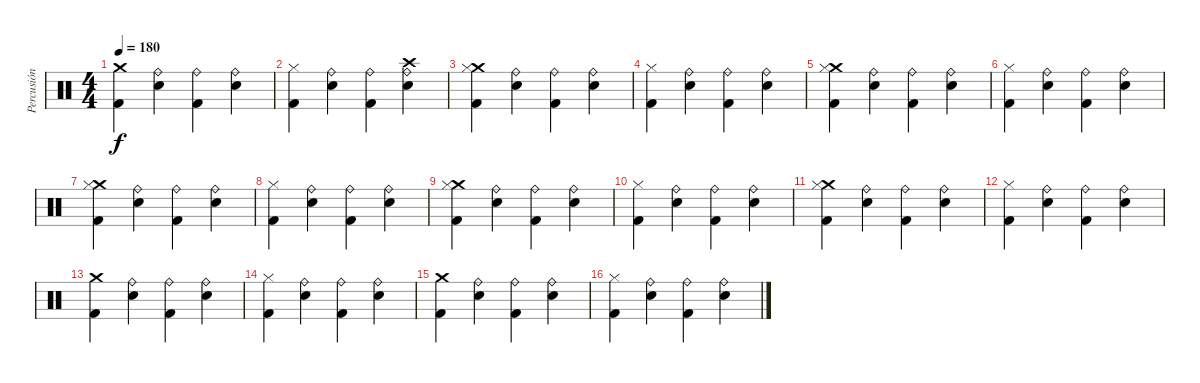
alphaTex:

\track ("Percusión" "Percusión") {instrument percussion}
\staff {score}
\articulation defaults
\ts (4 4)
\tempo 180
\clef neutral
\ks c
("Crash medium (hit)" "Kick (hit) 2").4{dy f} ("Ride (bell)" "Electric Snare (hit)").4 ("Ride (bell)" "Kick (hit) 2").4 ("Ride (bell)" "Electric Snare (hit)").4 |
("Hi-Hat (closed)" "Kick (hit) 2").4 ("Ride (bell)" "Electric Snare (hit)").4 ("Ride (bell)" "Kick (hit) 2").4 ("Crash high (hit)" "Ride (bell)" "Electric Snare (hit)").4 |
("Crash medium (hit)" "Hi-Hat (closed)" "Kick (hit) 2").4 ("Ride (bell)" "Electric Snare (hit)").4 ("Ride (bell)" "Kick (hit) 2").4 ("Ride (bell)" "Electric Snare (hit)").4 |
("Hi-Hat (closed)" "Kick (hit) 2").4 ("Ride (bell)" "Electric Snare (hit)").4 ("Ride (bell)" "Kick (hit) 2").4 ("Ride (bell)" "Electric Snare (hit)").4 |
("Crash medium (hit)" "Hi-Hat (closed)" "Kick (hit) 2").4 ("Ride (bell)" "Electric Snare (hit)").4 ("Ride (bell)" "Kick (hit) 2").4 ("Ride (bell)" "Electric Snare (hit)").4 |
("Hi-Hat (closed)" "Kick (hit) 2").4 ("Ride (bell)" "Electric Snare (hit)").4 ("Ride (bell)" "Kick (hit) 2").4 ("Ride (bell)" "Electric Snare (hit)").4 |
("Crash medium (hit)" "Hi-Hat (closed)" "Kick (hit) 2").4 ("Ride (bell)" "Electric Snare (hit)").4 ("Ride (bell)" "Kick (hit) 2").4 ("Ride (bell)" "Electric Snare (hit)").4 |
("Hi-Hat (closed)" "Kick (hit) 2").4 ("Ride (bell)" "Electric Snare (hit)").4 ("Ride (bell)" "Kick (hit) 2").4 ("Ride (bell)" "Electric Snare (hit)").4 |
("Crash medium (hit)" "Hi-Hat (closed)" "Kick (hit) 2").4 ("Ride (bell)" "Electric Snare (hit)").4 ("Ride (bell)" "Kick (hit) 2").4 ("Ride (bell)" "Electric Snare (hit)").4 |
("Hi-Hat (closed)" "Kick (hit) 2").4 ("Ride (bell)" "Electric Snare (hit)").4 ("Ride (bell)" "Kick (hit) 2").4 ("Ride (bell)" "Electric Snare (hit)").4 |
("Crash medium (hit)" "Hi-Hat (closed)" "Kick (hit) 2").4 ("Ride (bell)" "Electric Snare (hit)").4 ("Ride (bell)" "Kick (hit) 2").4 ("Ride (bell)" "Electric Snare (hit)").4 |
("Hi-Hat (closed)" "Kick (hit) 2").4 ("Ride (bell)" "Electric Snare (hit)").4 ("Ride (bell)" "Kick (hit) 2").4 ("Ride (bell)" "Electric Snare (hit)").4 |
("Crash medium (hit)" "Kick (hit) 2").4 ("Ride (bell)" "Electric Snare (hit)").4 ("Ride (bell)" "Kick (hit) 2").4 ("Ride (bell)" "Electric Snare (hit)").4 |
("Hi-Hat (closed)" "Kick (hit) 2").4 ("Ride (bell)" "Electric Snare (hit)").4 ("Ride (bell)" "Kick (hit) 2").4 ("Ride (bell)" "Electric Snare (hit)").4 |
("Crash medium (hit)" "Kick (hit) 2").4 ("Ride (bell)" "Electric Snare (hit)").4 ("Ride (bell)" "Kick (hit) 2").4 ("Ride (bell)" "Electric Snare (hit)").4 |
("Hi-Hat (closed)" "Kick (hit) 2").4 ("Ride (bell)" "Electric Snare (hit)").4 ("Ride (bell)" "Kick (hit) 2").4 ("Ride (bell)" "Electric Snare (hit)").4
